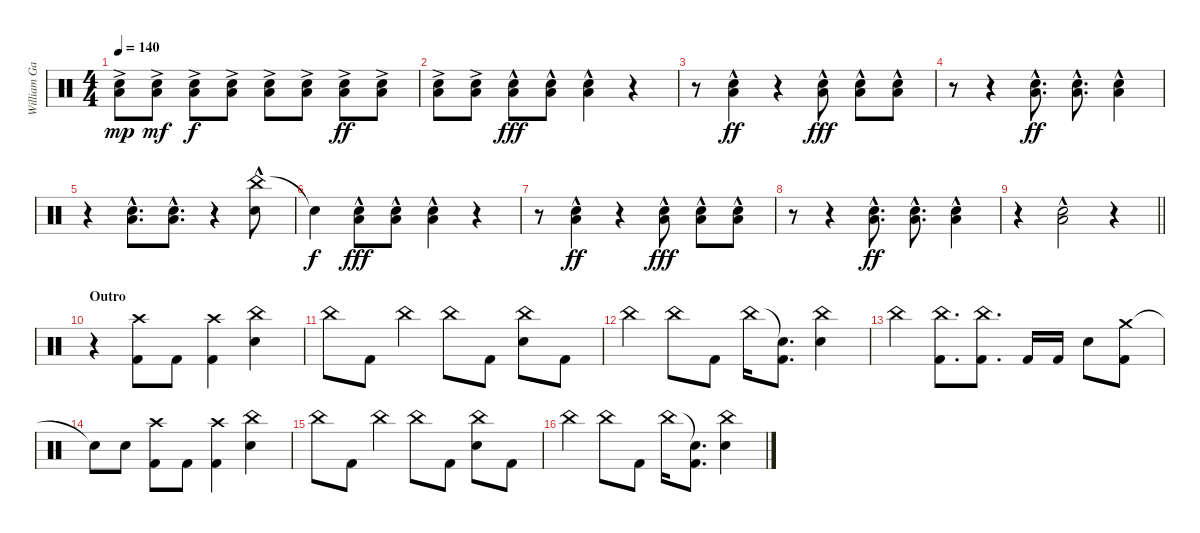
\track ("William Gates (Drums)" "William Ga") {instrument percussion}
\staff {score}
\articulation defaults
\ts (4 4)
\tempo 140
\clef neutral
\ks c
("Low Floor Tom (hit)"{ac} "Snare (hit) 2"{ac}).8{dy mp} ("Low Floor Tom (hit)"{ac} "Snare (hit) 2"{ac}).8{dy mf} ("Low Floor Tom (hit)"{ac} "Snare (hit) 2"{ac}).8{dy f} ("Low Floor Tom (hit)"{ac} "Snare (hit) 2"{ac}).8 ("Low Floor Tom (hit)"{ac} "Snare (hit) 2"{ac}).8 ("Low Floor Tom (hit)"{ac} "Snare (hit) 2"{ac}).8 ("Low Floor Tom (hit)"{ac} "Snare (hit) 2"{ac}).8{dy ff} ("Low Floor Tom (hit)"{ac} "Snare (hit) 2"{ac}).8 |
("Low Floor Tom (hit)"{ac} "Snare (hit) 2"{ac}).8 ("Low Floor Tom (hit)"{ac} "Snare (hit) 2"{ac}).8 ("Low Floor Tom (hit)"{hac} "Snare (hit) 2"{hac}).8{dy fff} ("Low Floor Tom (hit)"{hac} "Snare (hit) 2"{hac}).8 ("Low Floor Tom (hit)"{hac} "Snare (hit) 2"{hac}).4 r.4 |
r.8 ("Low Floor Tom (hit)"{hac} "Snare (hit) 2"{hac}).4{dy ff} r.4 ("Low Floor Tom (hit)"{hac} "Snare (hit) 2"{hac}).8{dy fff} ("Low Floor Tom (hit)"{hac} "Snare (hit) 2"{hac}).8 ("Low Floor Tom (hit)"{hac} "Snare (hit) 2"{hac}).8 |
r.8 r.4 ("Low Floor Tom (hit)"{hac} "Snare (hit) 2"{hac}).8{d dy ff} ("Low Floor Tom (hit)"{hac} "Snare (hit) 2"{hac}).8{d} ("Low Floor Tom (hit)"{hac} "Snare (hit) 2"{hac}).4 |
r.4 ("Low Floor Tom (hit)"{hac} "Snare (hit) 2"{hac}).8{d} ("Low Floor Tom (hit)"{hac} "Snare (hit) 2"{hac}).8{d} r.4 ("China (hit)"{hac} "Snare (hit) 2"{hac}).8 |
"Snare (hit)"{t}.4{dy f} ("Low Floor Tom (hit)"{hac} "Snare (hit) 2"{hac}).8{dy fff} ("Low Floor Tom (hit)"{hac} "Snare (hit) 2"{hac}).8 ("Low Floor Tom (hit)"{hac} "Snare (hit) 2"{hac}).4 r.4 |
r.8 ("Low Floor Tom (hit)"{hac} "Snare (hit) 2"{hac}).4{dy ff} r.4 ("Low Floor Tom (hit)"{hac} "Snare (hit) 2"{hac}).8{dy fff} ("Low Floor Tom (hit)"{hac} "Snare (hit) 2"{hac}).8 ("Low Floor Tom (hit)"{hac} "Snare (hit) 2"{hac}).8 |
r.8 r.4 ("Low Floor Tom (hit)"{hac} "Snare (hit) 2"{hac}).8{d dy ff} ("Low Floor Tom (hit)"{hac} "Snare (hit) 2"{hac}).8{d} ("Low Floor Tom (hit)"{hac} "Snare (hit) 2"{hac}).4 |
\barLineRight lightlight
r.4 ("Low Floor Tom (hit)"{hac} "Snare (hit) 2"{hac}).2 r.4 |
\section ("" "Outro")
r.4 ("Crash high (hit)" "Kick (hit) 2").8 "Kick (hit) 2".8 ("Crash high (hit)" "Kick (hit) 2").4 ("China (hit)" "Snare (hit) 2").4 |
"China (hit)".8 "Kick (hit) 2".8 "China (hit)".4 "China (hit)".8 "Kick (hit) 2".8 ("China (hit)" "Snare (hit) 2").8 "Kick (hit) 2".8 |
"China (hit)".4 "China (hit)".8 "Kick (hit) 2".8 "China (hit)".16 ("Snare (hit)"{t} "Kick (hit) 2").8{d} ("China (hit)" "Snare (hit) 2").4 |
"China (hit)".4 ("China (hit)" "Kick (hit) 2").8{d} ("China (hit)" "Kick (hit) 2").8{d} "Kick (hit) 2".16 "Kick (hit) 2".16 "Snare (hit) 2".8 ("Crash medium (hit)" "Kick (hit) 2").8 |
"Snare (hit)"{t}.8 "Snare (hit) 2".8 ("Crash high (hit)" "Kick (hit) 2").8 "Kick (hit) 2".8 ("Crash high (hit)" "Kick (hit) 2").4 ("China (hit)" "Snare (hit) 2").4 |
"China (hit)".8 "Kick (hit) 2".8 "China (hit)".4 "China (hit)".8 "Kick (hit) 2".8 ("China (hit)" "Snare (hit) 2").8 "Kick (hit) 2".8 |
"China (hit)".4 "China (hit)".8 "Kick (hit) 2".8 "China (hit)".16 ("Snare (hit)"{t} "Kick (hit) 2").8{d} ("China (hit)" "Snare (hit) 2").4
